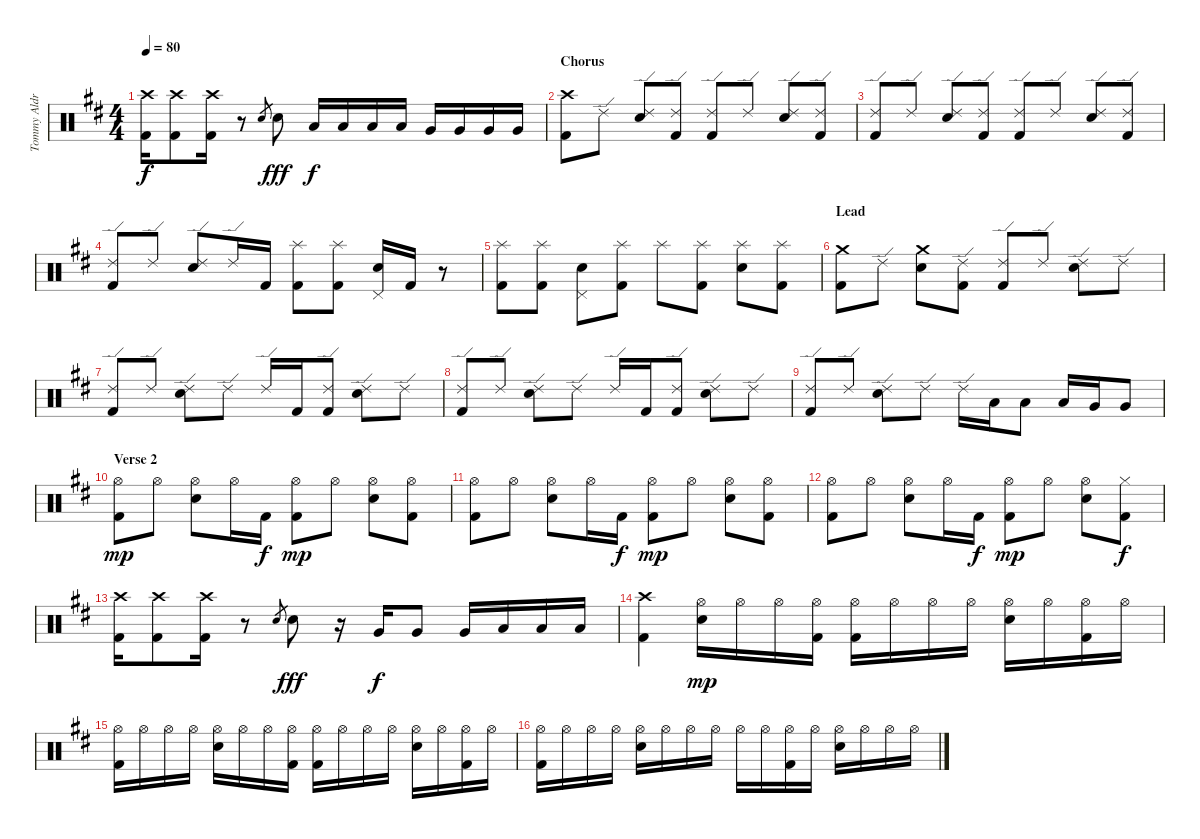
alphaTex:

\track ("Tommy Aldridge" "Tommy Aldr") {instrument percussion}
\staff {score}
\articulation defaults
\ts (4 4)
\tempo 80
\clef neutral
\ks bminor
("Crash high (hit)" "Kick (hit) 2").16{dy f} ("Crash high (hit)" "Kick (hit) 2").8 ("Crash high (hit)" "Kick (hit) 2").16 r.8 "Snare (hit) 2".8{gr} "Snare (hit) 2".8{dy fff} "Low Tom (hit)".16{dy f} "Low Tom (hit)".16 "Low Tom (hit)".16 "Low Tom (hit)".16 "Very Low Tom (hit)".16 "Very Low Tom (hit)".16 "Very Low Tom (hit)".16 "Very Low Tom (hit)".16 |
\section ("" "Chorus")
("Crash high (hit)" "Kick (hit) 2").8 "Ride (edge) 2".8 ("Ride (edge) 2" "Snare (hit) 2").8 ("Ride (edge) 2" "Kick (hit) 2").8 ("Ride (edge) 2" "Kick (hit) 2").8 "Ride (edge) 2".8 ("Ride (edge) 2" "Snare (hit) 2").8 ("Ride (edge) 2" "Kick (hit) 2").8 |
("Ride (edge) 2" "Kick (hit) 2").8 "Ride (edge) 2".8 ("Ride (edge) 2" "Snare (hit) 2").8 ("Ride (edge) 2" "Kick (hit) 2").8 ("Ride (edge) 2" "Kick (hit) 2").8 "Ride (edge) 2".8 ("Ride (edge) 2" "Snare (hit) 2").8 ("Ride (edge) 2" "Kick (hit) 2").8 |
("Ride (edge) 2" "Kick (hit) 2").8 "Ride (edge) 2".8 ("Ride (edge) 2" "Snare (hit) 2").8 "Ride (edge) 2".16 "Kick (hit) 2".16 ("Splash (hit)" "Kick (hit) 2").8 ("Splash (hit)" "Kick (hit) 2").8 ("Pedal Hi-Hat (hit)" "Snare (hit) 2").16 "Kick (hit) 2".16 r.8 |
("Splash (hit)" "Kick (hit) 2").8 ("Splash (hit)" "Kick (hit) 2").8 ("Pedal Hi-Hat (hit)" "Snare (hit) 2").8 ("Splash (hit)" "Kick (hit) 2").8 "Splash (hit)".8 ("Splash (hit)" "Kick (hit) 2").8 ("Splash (hit)" "Snare (hit) 2").8 ("Splash (hit)" "Kick (hit) 2").8 |
\section ("" "Lead")
("Crash medium (hit)" "Kick (hit) 2").8 "Ride (edge) 2".8 ("Crash medium (hit)" "Snare (hit) 2").8 ("Ride (edge) 2" "Kick (hit) 2").8 ("Ride (edge) 2" "Kick (hit) 2").8 "Ride (edge) 2".8 ("Ride (edge) 2" "Snare (hit) 2").8 "Ride (edge) 2".8 |
("Ride (edge) 2" "Kick (hit) 2").8 "Ride (edge) 2".8 ("Ride (edge) 2" "Snare (hit) 2").8 "Ride (edge) 2".8 "Ride (edge) 2".16 "Kick (hit) 2".16 ("Ride (edge) 2" "Kick (hit) 2").8 ("Ride (edge) 2" "Snare (hit) 2").8 "Ride (edge) 2".8 |
("Ride (edge) 2" "Kick (hit) 2").8 "Ride (edge) 2".8 ("Ride (edge) 2" "Snare (hit) 2").8 "Ride (edge) 2".8 "Ride (edge) 2".16 "Kick (hit) 2".16 ("Ride (edge) 2" "Kick (hit) 2").8 ("Ride (edge) 2" "Snare (hit) 2").8 "Ride (edge) 2".8 |
("Ride (edge) 2" "Kick (hit) 2").8 "Ride (edge) 2".8 ("Ride (edge) 2" "Snare (hit) 2").8 "Ride (edge) 2".8 "Ride (edge) 2".16 "Low Tom (hit)".16 "Low Tom (hit)".8 "Low Tom (hit)".16 "Very Low Tom (hit)".16 "Very Low Tom (hit)".8 |
\section ("" "Verse 2")
("Hi-Hat (open)" "Kick (hit) 2").8{dy mp} "Hi-Hat (open)".8 ("Hi-Hat (open)" "Snare (hit) 2").8 "Hi-Hat (open)".16 "Kick (hit) 2".16{dy f} ("Hi-Hat (open)" "Kick (hit) 2").8{dy mp} "Hi-Hat (open)".8 ("Hi-Hat (open)" "Snare (hit) 2").8 ("Hi-Hat (open)" "Kick (hit) 2").8 |
("Hi-Hat (open)" "Kick (hit) 2").8 "Hi-Hat (open)".8 ("Hi-Hat (open)" "Snare (hit) 2").8 "Hi-Hat (open)".16 "Kick (hit) 2".16{dy f} ("Hi-Hat (open)" "Kick (hit) 2").8{dy mp} "Hi-Hat (open)".8 ("Hi-Hat (open)" "Snare (hit) 2").8 ("Hi-Hat (open)" "Kick (hit) 2").8 |
("Hi-Hat (open)" "Kick (hit) 2").8 "Hi-Hat (open)".8 ("Hi-Hat (open)" "Snare (hit) 2").8 "Hi-Hat (open)".16 "Kick (hit) 2".16{dy f} ("Hi-Hat (open)" "Kick (hit) 2").8{dy mp} "Hi-Hat (open)".8 ("Hi-Hat (open)" "Snare (hit) 2").8 ("Hi-Hat (closed)" "Kick (hit) 2").8{dy f} |
("Crash high (hit)" "Kick (hit) 2").16 ("Crash high (hit)" "Kick (hit) 2").8 ("Crash high (hit)" "Kick (hit) 2").16 r.8 "Snare (hit) 2".8{gr} "Snare (hit) 2".8{dy fff} r.16 "Very Low Tom (hit)".16{dy f} "Very Low Tom (hit)".8 "Very Low Tom (hit)".16 "Low Floor Tom (hit)".16 "Low Floor Tom (hit)".16 "Low Floor Tom (hit)".16 |
("Crash high (hit)" "Kick (hit) 2").4 ("Hi-Hat (open)" "Snare (hit) 2").16{dy mp} "Hi-Hat (open)".16 "Hi-Hat (open)".16 ("Hi-Hat (open)" "Kick (hit) 2").16 ("Hi-Hat (open)" "Kick (hit) 2").16 "Hi-Hat (open)".16 "Hi-Hat (open)".16 "Hi-Hat (open)".16 ("Hi-Hat (open)" "Snare (hit) 2").16 "Hi-Hat (open)".16 ("Hi-Hat (open)" "Kick (hit) 2").16 "Hi-Hat (open)".16 |
("Hi-Hat (open)" "Kick (hit) 2").16 "Hi-Hat (open)".16 "Hi-Hat (open)".16 "Hi-Hat (open)".16 ("Hi-Hat (open)" "Snare (hit) 2").16 "Hi-Hat (open)".16 "Hi-Hat (open)".16 ("Hi-Hat (open)" "Kick (hit) 2").16 ("Hi-Hat (open)" "Kick (hit) 2").16 "Hi-Hat (open)".16 "Hi-Hat (open)".16 "Hi-Hat (open)".16 ("Hi-Hat (open)" "Snare (hit) 2").16 "Hi-Hat (open)".16 ("Hi-Hat (open)" "Kick (hit) 2").16 "Hi-Hat (open)".16 |
("Hi-Hat (open)" "Kick (hit) 2").16 "Hi-Hat (open)".16 "Hi-Hat (open)".16 "Hi-Hat (open)".16 ("Hi-Hat (open)" "Snare (hit) 2").16 "Hi-Hat (open)".16 "Hi-Hat (open)".16 "Hi-Hat (open)".16 "Hi-Hat (open)".16 "Hi-Hat (open)".16 ("Hi-Hat (open)" "Kick (hit) 2").16 "Hi-Hat (open)".16 ("Hi-Hat (open)" "Snare (hit) 2").16 "Hi-Hat (open)".16 "Hi-Hat (open)".16 "Hi-Hat (open)".16
